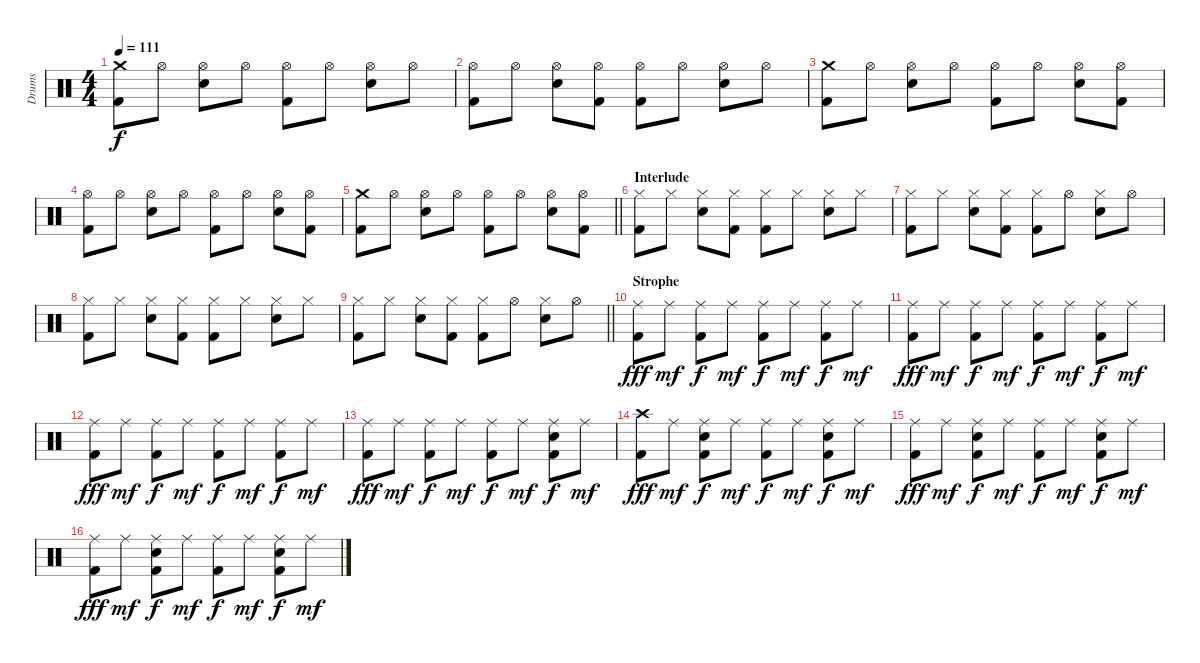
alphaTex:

\track ("Drums" "Drums") {instrument percussion}
\staff {score}
\articulation defaults
\ts (4 4)
\tempo 111
\clef neutral
\ks c
("Crash medium (hit)" "Kick (hit) 2").8{dy f} "Hi-Hat (open)".8 ("Hi-Hat (open)" "Snare (hit) 2").8 "Hi-Hat (open)".8 ("Hi-Hat (open)" "Kick (hit) 2").8 "Hi-Hat (open)".8 ("Hi-Hat (open)" "Snare (hit) 2").8 "Hi-Hat (open)".8 |
("Hi-Hat (open)" "Kick (hit) 2").8 "Hi-Hat (open)".8 ("Hi-Hat (open)" "Snare (hit) 2").8 ("Hi-Hat (open)" "Kick (hit) 2").8 ("Hi-Hat (open)" "Kick (hit) 2").8 "Hi-Hat (open)".8 ("Hi-Hat (open)" "Snare (hit) 2").8 "Hi-Hat (open)".8 |
("Crash medium (hit)" "Kick (hit) 2").8 "Hi-Hat (open)".8 ("Hi-Hat (open)" "Snare (hit) 2").8 "Hi-Hat (open)".8 ("Hi-Hat (open)" "Kick (hit) 2").8 "Hi-Hat (open)".8 ("Hi-Hat (open)" "Snare (hit) 2").8 ("Hi-Hat (open)" "Kick (hit) 2").8 |
("Hi-Hat (open)" "Kick (hit) 2").8 "Hi-Hat (open)".8 ("Hi-Hat (open)" "Snare (hit) 2").8 "Hi-Hat (open)".8 ("Hi-Hat (open)" "Kick (hit) 2").8 "Hi-Hat (open)".8 ("Hi-Hat (open)" "Snare (hit) 2").8 ("Hi-Hat (open)" "Kick (hit) 2").8 |
\barLineRight lightlight
("Crash medium (hit)" "Kick (hit) 2").8 "Hi-Hat (open)".8 ("Hi-Hat (open)" "Snare (hit) 2").8 "Hi-Hat (open)".8 ("Hi-Hat (open)" "Kick (hit) 2").8 "Hi-Hat (open)".8 ("Hi-Hat (open)" "Snare (hit) 2").8 ("Hi-Hat (open)" "Kick (hit) 2").8 |
\section ("" "Interlude")
("Hi-Hat (closed)" "Kick (hit) 2").8 "Hi-Hat (closed)".8 ("Hi-Hat (closed)" "Snare (hit) 2").8 ("Hi-Hat (closed)" "Kick (hit) 2").8 ("Hi-Hat (closed)" "Kick (hit) 2").8 "Hi-Hat (closed)".8 ("Hi-Hat (closed)" "Snare (hit) 2").8 "Hi-Hat (closed)".8 |
("Hi-Hat (closed)" "Kick (hit) 2").8 "Hi-Hat (closed)".8 ("Hi-Hat (closed)" "Snare (hit) 2").8 ("Hi-Hat (closed)" "Kick (hit) 2").8 ("Hi-Hat (closed)" "Kick (hit) 2").8 "Hi-Hat (open)".8 ("Hi-Hat (closed)" "Snare (hit) 2").8 "Hi-Hat (open)".8 |
("Hi-Hat (closed)" "Kick (hit) 2").8 "Hi-Hat (closed)".8 ("Hi-Hat (closed)" "Snare (hit) 2").8 ("Hi-Hat (closed)" "Kick (hit) 2").8 ("Hi-Hat (closed)" "Kick (hit) 2").8 "Hi-Hat (closed)".8 ("Hi-Hat (closed)" "Snare (hit) 2").8 "Hi-Hat (closed)".8 |
\barLineRight lightlight
("Hi-Hat (closed)" "Kick (hit) 2").8 "Hi-Hat (closed)".8 ("Hi-Hat (closed)" "Snare (hit) 2").8 ("Hi-Hat (closed)" "Kick (hit) 2").8 ("Hi-Hat (closed)" "Kick (hit) 2").8 "Hi-Hat (open)".8 ("Hi-Hat (closed)" "Snare (hit) 2").8 "Hi-Hat (open)".8 |
\section ("" "Strophe")
("Ride (middle)" "Kick (hit) 2").8{dy fff} "Ride (middle)".8{dy mf} ("Ride (middle)" "Kick (hit) 2").8{dy f} "Ride (middle)".8{dy mf} ("Ride (middle)" "Kick (hit) 2").8{dy f} "Ride (middle)".8{dy mf} ("Ride (middle)" "Kick (hit) 2").8{dy f} "Ride (middle)".8{dy mf} |
("Ride (middle)" "Kick (hit) 2").8{dy fff} "Ride (middle)".8{dy mf} ("Ride (middle)" "Kick (hit) 2").8{dy f} "Ride (middle)".8{dy mf} ("Ride (middle)" "Kick (hit) 2").8{dy f} "Ride (middle)".8{dy mf} ("Ride (middle)" "Kick (hit) 2").8{dy f} "Ride (middle)".8{dy mf} |
("Ride (middle)" "Kick (hit) 2").8{dy fff} "Ride (middle)".8{dy mf} ("Ride (middle)" "Kick (hit) 2").8{dy f} "Ride (middle)".8{dy mf} ("Ride (middle)" "Kick (hit) 2").8{dy f} "Ride (middle)".8{dy mf} ("Ride (middle)" "Kick (hit) 2").8{dy f} "Ride (middle)".8{dy mf} |
("Ride (middle)" "Kick (hit) 2").8{dy fff} "Ride (middle)".8{dy mf} ("Ride (middle)" "Kick (hit) 2").8{dy f} "Ride (middle)".8{dy mf} ("Ride (middle)" "Kick (hit) 2").8{dy f} "Ride (middle)".8{dy mf} ("Ride (middle)" "Snare (hit) 2" "Kick (hit) 2").8{dy f} "Ride (middle)".8{dy mf} |
("Crash high (hit)" "Kick (hit) 2").8{dy fff} "Ride (middle)".8{dy mf} ("Ride (middle)" "Snare (hit) 2" "Kick (hit) 2").8{dy f} "Ride (middle)".8{dy mf} ("Ride (middle)" "Kick (hit) 2").8{dy f} "Ride (middle)".8{dy mf} ("Ride (middle)" "Snare (hit) 2" "Kick (hit) 2").8{dy f} "Ride (middle)".8{dy mf} |
("Ride (middle)" "Kick (hit) 2").8{dy fff} "Ride (middle)".8{dy mf} ("Ride (middle)" "Snare (hit) 2" "Kick (hit) 2").8{dy f} "Ride (middle)".8{dy mf} ("Ride (middle)" "Kick (hit) 2").8{dy f} "Ride (middle)".8{dy mf} ("Ride (middle)" "Snare (hit) 2" "Kick (hit) 2").8{dy f} "Ride (middle)".8{dy mf} |
("Ride (middle)" "Kick (hit) 2").8{dy fff} "Ride (middle)".8{dy mf} ("Ride (middle)" "Snare (hit) 2" "Kick (hit) 2").8{dy f} "Ride (middle)".8{dy mf} ("Ride (middle)" "Kick (hit) 2").8{dy f} "Ride (middle)".8{dy mf} ("Ride (middle)" "Snare (hit) 2" "Kick (hit) 2").8{dy f} "Ride (middle)".8{dy mf}
